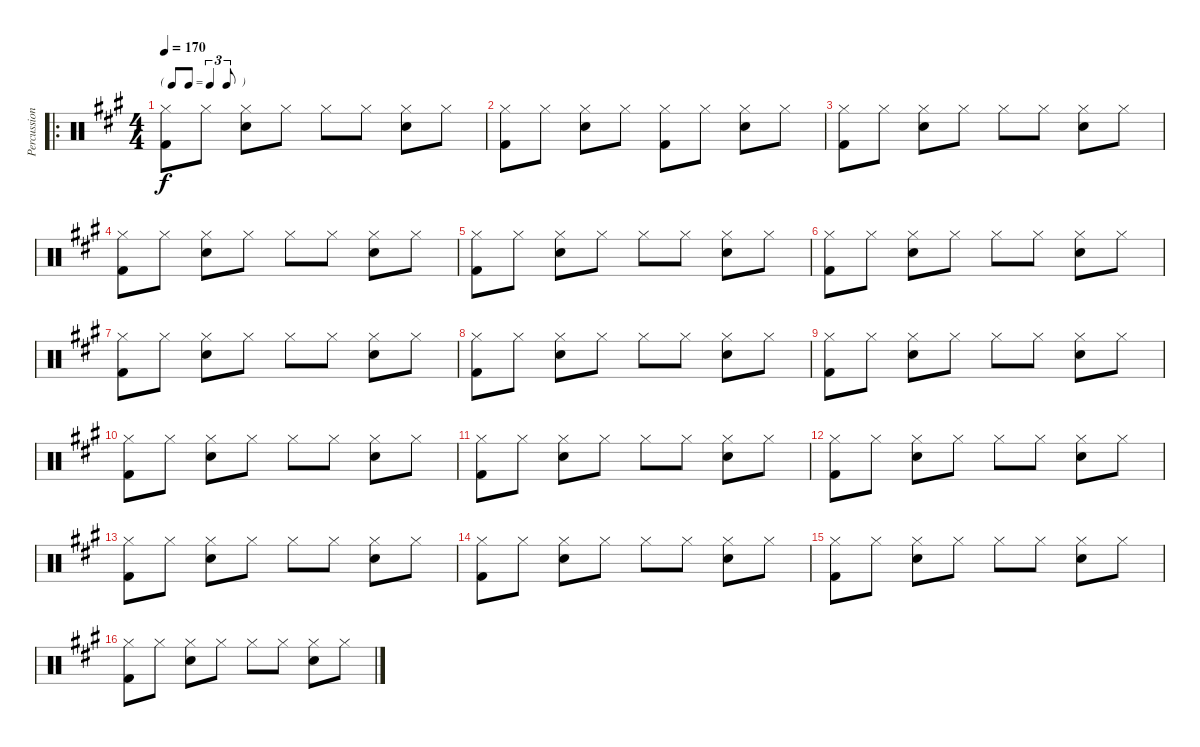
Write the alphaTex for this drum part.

\track ("Percussion" "Percussion") {instrument percussion}
\staff {score}
\articulation defaults
\ro
\ts (4 4)
\tf triplet8th
\tempo 170
\clef neutral
\ks a
("Hi-Hat (closed)" "Kick (hit) 2").8{dy f} "Hi-Hat (closed)".8 ("Hi-Hat (closed)" "Snare (hit) 2").8 "Hi-Hat (closed)".8 "Hi-Hat (closed)".8 "Hi-Hat (closed)".8 ("Hi-Hat (closed)" "Snare (hit) 2").8 "Hi-Hat (closed)".8 |
("Hi-Hat (closed)" "Kick (hit) 2").8 "Hi-Hat (closed)".8 ("Hi-Hat (closed)" "Snare (hit) 2").8 "Hi-Hat (closed)".8 ("Hi-Hat (closed)" "Kick (hit) 2").8 "Hi-Hat (closed)".8 ("Hi-Hat (closed)" "Snare (hit) 2").8 "Hi-Hat (closed)".8 |
("Hi-Hat (closed)" "Kick (hit) 2").8 "Hi-Hat (closed)".8 ("Hi-Hat (closed)" "Snare (hit) 2").8 "Hi-Hat (closed)".8 "Hi-Hat (closed)".8 "Hi-Hat (closed)".8 ("Hi-Hat (closed)" "Snare (hit) 2").8 "Hi-Hat (closed)".8 |
("Hi-Hat (closed)" "Kick (hit) 2").8 "Hi-Hat (closed)".8 ("Hi-Hat (closed)" "Snare (hit) 2").8 "Hi-Hat (closed)".8 "Hi-Hat (closed)".8 "Hi-Hat (closed)".8 ("Hi-Hat (closed)" "Snare (hit) 2").8 "Hi-Hat (closed)".8 |
("Hi-Hat (closed)" "Kick (hit) 2").8 "Hi-Hat (closed)".8 ("Hi-Hat (closed)" "Snare (hit) 2").8 "Hi-Hat (closed)".8 "Hi-Hat (closed)".8 "Hi-Hat (closed)".8 ("Hi-Hat (closed)" "Snare (hit) 2").8 "Hi-Hat (closed)".8 |
("Hi-Hat (closed)" "Kick (hit) 2").8 "Hi-Hat (closed)".8 ("Hi-Hat (closed)" "Snare (hit) 2").8 "Hi-Hat (closed)".8 "Hi-Hat (closed)".8 "Hi-Hat (closed)".8 ("Hi-Hat (closed)" "Snare (hit) 2").8 "Hi-Hat (closed)".8 |
("Hi-Hat (closed)" "Kick (hit) 2").8 "Hi-Hat (closed)".8 ("Hi-Hat (closed)" "Snare (hit) 2").8 "Hi-Hat (closed)".8 "Hi-Hat (closed)".8 "Hi-Hat (closed)".8 ("Hi-Hat (closed)" "Snare (hit) 2").8 "Hi-Hat (closed)".8 |
("Hi-Hat (closed)" "Kick (hit) 2").8 "Hi-Hat (closed)".8 ("Hi-Hat (closed)" "Snare (hit) 2").8 "Hi-Hat (closed)".8 "Hi-Hat (closed)".8 "Hi-Hat (closed)".8 ("Hi-Hat (closed)" "Snare (hit) 2").8 "Hi-Hat (closed)".8 |
("Hi-Hat (closed)" "Kick (hit) 2").8 "Hi-Hat (closed)".8 ("Hi-Hat (closed)" "Snare (hit) 2").8 "Hi-Hat (closed)".8 "Hi-Hat (closed)".8 "Hi-Hat (closed)".8 ("Hi-Hat (closed)" "Snare (hit) 2").8 "Hi-Hat (closed)".8 |
("Hi-Hat (closed)" "Kick (hit) 2").8 "Hi-Hat (closed)".8 ("Hi-Hat (closed)" "Snare (hit) 2").8 "Hi-Hat (closed)".8 "Hi-Hat (closed)".8 "Hi-Hat (closed)".8 ("Hi-Hat (closed)" "Snare (hit) 2").8 "Hi-Hat (closed)".8 |
("Hi-Hat (closed)" "Kick (hit) 2").8 "Hi-Hat (closed)".8 ("Hi-Hat (closed)" "Snare (hit) 2").8 "Hi-Hat (closed)".8 "Hi-Hat (closed)".8 "Hi-Hat (closed)".8 ("Hi-Hat (closed)" "Snare (hit) 2").8 "Hi-Hat (closed)".8 |
("Hi-Hat (closed)" "Kick (hit) 2").8 "Hi-Hat (closed)".8 ("Hi-Hat (closed)" "Snare (hit) 2").8 "Hi-Hat (closed)".8 "Hi-Hat (closed)".8 "Hi-Hat (closed)".8 ("Hi-Hat (closed)" "Snare (hit) 2").8 "Hi-Hat (closed)".8 |
("Hi-Hat (closed)" "Kick (hit) 2").8 "Hi-Hat (closed)".8 ("Hi-Hat (closed)" "Snare (hit) 2").8 "Hi-Hat (closed)".8 "Hi-Hat (closed)".8 "Hi-Hat (closed)".8 ("Hi-Hat (closed)" "Snare (hit) 2").8 "Hi-Hat (closed)".8 |
("Hi-Hat (closed)" "Kick (hit) 2").8 "Hi-Hat (closed)".8 ("Hi-Hat (closed)" "Snare (hit) 2").8 "Hi-Hat (closed)".8 "Hi-Hat (closed)".8 "Hi-Hat (closed)".8 ("Hi-Hat (closed)" "Snare (hit) 2").8 "Hi-Hat (closed)".8 |
("Hi-Hat (closed)" "Kick (hit) 2").8 "Hi-Hat (closed)".8 ("Hi-Hat (closed)" "Snare (hit) 2").8 "Hi-Hat (closed)".8 "Hi-Hat (closed)".8 "Hi-Hat (closed)".8 ("Hi-Hat (closed)" "Snare (hit) 2").8 "Hi-Hat (closed)".8 |
("Hi-Hat (closed)" "Kick (hit) 2").8 "Hi-Hat (closed)".8 ("Hi-Hat (closed)" "Snare (hit) 2").8 "Hi-Hat (closed)".8 "Hi-Hat (closed)".8 "Hi-Hat (closed)".8 ("Hi-Hat (closed)" "Snare (hit) 2").8 "Hi-Hat (closed)".8
